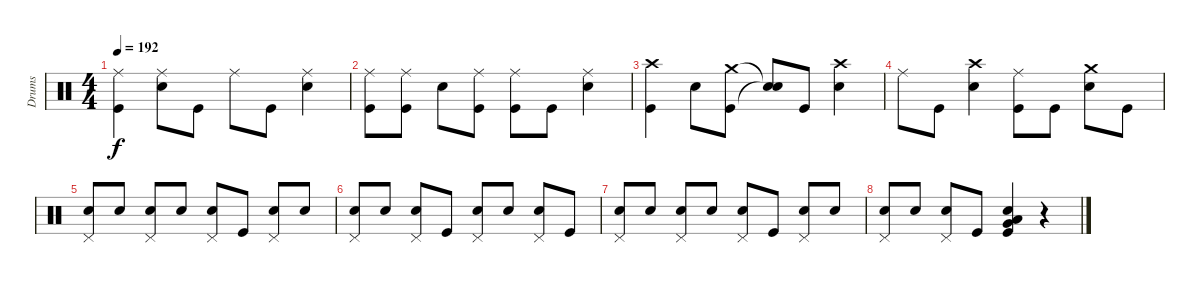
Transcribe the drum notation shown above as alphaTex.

\track ("Drums" "Drums") {instrument percussion}
\staff {score}
\articulation defaults
\ts (4 4)
\tempo 192
\clef neutral
\ks c
("Ride (middle)" "Kick (hit)").4{dy f} ("Ride (middle)" "Electric Snare (hit)").8 "Kick (hit)".8 "Ride (middle)".8 "Kick (hit)".8 ("Ride (middle)" "Electric Snare (hit)").4 |
("Ride (middle)" "Kick (hit)").8 ("Ride (middle)" "Kick (hit)").8 "Electric Snare (hit)".8 ("Ride (middle)" "Kick (hit)").8 ("Ride (middle)" "Kick (hit)").8 "Kick (hit)".8 ("Ride (middle)" "Electric Snare (hit)").4 |
("Crash high (hit)" "Kick (hit)").4 "Electric Snare (hit)".8 ("Crash medium (hit)" "Kick (hit)").8 ("Snare (hit)"{t} "Snare (hit)"{t}).8 "Kick (hit)".8 ("Crash high (hit)" "Electric Snare (hit)").4 |
"Ride (middle)".8 "Kick (hit)".8 ("Crash high (hit)" "Electric Snare (hit)").4 ("Ride (middle)" "Kick (hit)").8 "Kick (hit)".8 ("Crash medium (hit)" "Electric Snare (hit)").8 "Kick (hit)".8 |
("Electric Snare (hit)" "Pedal Hi-Hat (hit)").8 "Electric Snare (hit)".8 ("Electric Snare (hit)" "Pedal Hi-Hat (hit)").8 "Electric Snare (hit)".8 ("Electric Snare (hit)" "Pedal Hi-Hat (hit)").8 "Kick (hit)".8 ("Electric Snare (hit)" "Pedal Hi-Hat (hit)").8 "Electric Snare (hit)".8 |
("Electric Snare (hit)" "Pedal Hi-Hat (hit)").8 "Electric Snare (hit)".8 ("Electric Snare (hit)" "Pedal Hi-Hat (hit)").8 "Kick (hit)".8 ("Electric Snare (hit)" "Pedal Hi-Hat (hit)").8 "Electric Snare (hit)".8 ("Electric Snare (hit)" "Pedal Hi-Hat (hit)").8 "Kick (hit)".8 |
("Electric Snare (hit)" "Pedal Hi-Hat (hit)").8 "Electric Snare (hit)".8 ("Electric Snare (hit)" "Pedal Hi-Hat (hit)").8 "Electric Snare (hit)".8 ("Electric Snare (hit)" "Pedal Hi-Hat (hit)").8 "Kick (hit)".8 ("Electric Snare (hit)" "Pedal Hi-Hat (hit)").8 "Electric Snare (hit)".8 |
("Electric Snare (hit)" "Pedal Hi-Hat (hit)").8 "Electric Snare (hit)".8 ("Electric Snare (hit)" "Pedal Hi-Hat (hit)").8 "Kick (hit)".8 ("Electric Snare (hit)" "Very Low Tom (hit)" "Low Floor Tom (hit)" "Kick (hit)").4 r.4
